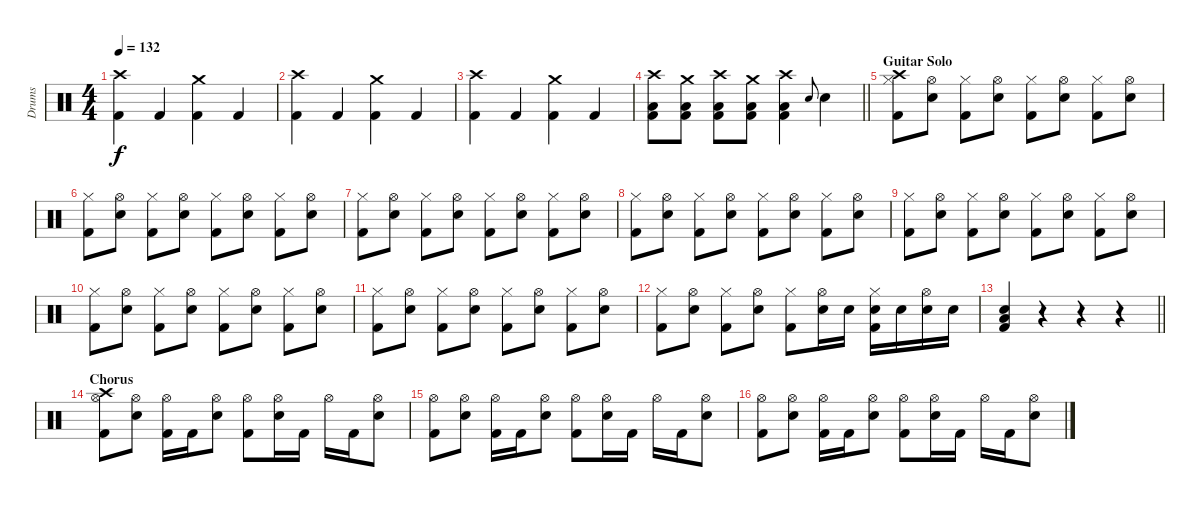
\track ("Drums" "Drums") {instrument percussion}
\staff {score}
\articulation defaults
\ts (4 4)
\tempo 132
\clef neutral
\ks c
("Crash high (hit)" "Kick (hit) 2").4{dy f} "Kick (hit) 2".4 ("Crash medium (hit)" "Kick (hit) 2").4 "Kick (hit) 2".4 |
("Crash high (hit)" "Kick (hit) 2").4 "Kick (hit) 2".4 ("Crash medium (hit)" "Kick (hit) 2").4 "Kick (hit) 2".4 |
("Crash high (hit)" "Kick (hit) 2").4 "Kick (hit) 2".4 ("Crash medium (hit)" "Kick (hit) 2").4 "Kick (hit) 2".4 |
\barLineRight lightlight
("Crash high (hit)" "Low Floor Tom (hit)" "Kick (hit) 2").8 ("Crash medium (hit)" "Low Floor Tom (hit)" "Kick (hit) 2").8 ("Crash high (hit)" "Low Floor Tom (hit)" "Kick (hit) 2").8 ("Crash medium (hit)" "Low Floor Tom (hit)" "Kick (hit) 2").8 ("Crash high (hit)" "Low Floor Tom (hit)" "Kick (hit) 2").4 "Snare (hit) 2".8{gr onbeat} "Snare (hit) 2".4 |
\section ("" "Guitar Solo")
("Crash high (hit)" "Hi-Hat (closed)" "Kick (hit) 2").8 ("Hi-Hat (open)" "Snare (hit) 2").8 ("Hi-Hat (closed)" "Kick (hit) 2").8 ("Hi-Hat (open)" "Snare (hit) 2").8 ("Hi-Hat (closed)" "Kick (hit) 2").8 ("Hi-Hat (open)" "Snare (hit) 2").8 ("Hi-Hat (closed)" "Kick (hit) 2").8 ("Hi-Hat (open)" "Snare (hit) 2").8 |
("Hi-Hat (closed)" "Kick (hit) 2").8 ("Hi-Hat (open)" "Snare (hit) 2").8 ("Hi-Hat (closed)" "Kick (hit) 2").8 ("Hi-Hat (open)" "Snare (hit) 2").8 ("Hi-Hat (closed)" "Kick (hit) 2").8 ("Hi-Hat (open)" "Snare (hit) 2").8 ("Hi-Hat (closed)" "Kick (hit) 2").8 ("Hi-Hat (open)" "Snare (hit) 2").8 |
("Hi-Hat (closed)" "Kick (hit) 2").8 ("Hi-Hat (open)" "Snare (hit) 2").8 ("Hi-Hat (closed)" "Kick (hit) 2").8 ("Hi-Hat (open)" "Snare (hit) 2").8 ("Hi-Hat (closed)" "Kick (hit) 2").8 ("Hi-Hat (open)" "Snare (hit) 2").8 ("Hi-Hat (closed)" "Kick (hit) 2").8 ("Hi-Hat (open)" "Snare (hit) 2").8 |
("Hi-Hat (closed)" "Kick (hit) 2").8 ("Hi-Hat (open)" "Snare (hit) 2").8 ("Hi-Hat (closed)" "Kick (hit) 2").8 ("Hi-Hat (open)" "Snare (hit) 2").8 ("Hi-Hat (closed)" "Kick (hit) 2").8 ("Hi-Hat (open)" "Snare (hit) 2").8 ("Hi-Hat (closed)" "Kick (hit) 2").8 ("Hi-Hat (open)" "Snare (hit) 2").8 |
("Hi-Hat (closed)" "Kick (hit) 2").8 ("Hi-Hat (open)" "Snare (hit) 2").8 ("Hi-Hat (closed)" "Kick (hit) 2").8 ("Hi-Hat (open)" "Snare (hit) 2").8 ("Hi-Hat (closed)" "Kick (hit) 2").8 ("Hi-Hat (open)" "Snare (hit) 2").8 ("Hi-Hat (closed)" "Kick (hit) 2").8 ("Hi-Hat (open)" "Snare (hit) 2").8 |
("Hi-Hat (closed)" "Kick (hit) 2").8 ("Hi-Hat (open)" "Snare (hit) 2").8 ("Hi-Hat (closed)" "Kick (hit) 2").8 ("Hi-Hat (open)" "Snare (hit) 2").8 ("Hi-Hat (closed)" "Kick (hit) 2").8 ("Hi-Hat (open)" "Snare (hit) 2").8 ("Hi-Hat (closed)" "Kick (hit) 2").8 ("Hi-Hat (open)" "Snare (hit) 2").8 |
("Hi-Hat (closed)" "Kick (hit) 2").8 ("Hi-Hat (open)" "Snare (hit) 2").8 ("Hi-Hat (closed)" "Kick (hit) 2").8 ("Hi-Hat (open)" "Snare (hit) 2").8 ("Hi-Hat (closed)" "Kick (hit) 2").8 ("Hi-Hat (open)" "Snare (hit) 2").8 ("Hi-Hat (closed)" "Kick (hit) 2").8 ("Hi-Hat (open)" "Snare (hit) 2").8 |
("Hi-Hat (closed)" "Kick (hit) 2").8 ("Hi-Hat (open)" "Snare (hit) 2").8 ("Hi-Hat (closed)" "Kick (hit) 2").8 ("Hi-Hat (open)" "Snare (hit) 2").8 ("Hi-Hat (closed)" "Kick (hit) 2").8 ("Hi-Hat (open)" "Snare (hit) 2").16 "Snare (hit) 2".16 ("Hi-Hat (closed)" "Snare (hit) 2" "Kick (hit) 2").16 "Snare (hit) 2".16 ("Hi-Hat (open)" "Snare (hit) 2").16 "Snare (hit) 2".16 |
\barLineRight lightlight
("Snare (hit) 2" "Low Floor Tom (hit)" "Kick (hit) 2").4 r.4 r.4 r.4 |
\section ("" "Chorus")
("Crash high (hit)" "Hi-Hat (open)" "Kick (hit) 2").8 ("Hi-Hat (open)" "Snare (hit) 2").8 ("Hi-Hat (open)" "Kick (hit) 2").16 "Kick (hit) 2".16 ("Hi-Hat (open)" "Snare (hit) 2").8 ("Hi-Hat (open)" "Kick (hit) 2").8 ("Hi-Hat (open)" "Snare (hit) 2").16 "Kick (hit) 2".16 "Hi-Hat (open)".16 "Kick (hit) 2".16 ("Hi-Hat (open)" "Snare (hit) 2").8 |
("Hi-Hat (open)" "Kick (hit) 2").8 ("Hi-Hat (open)" "Snare (hit) 2").8 ("Hi-Hat (open)" "Kick (hit) 2").16 "Kick (hit) 2".16 ("Hi-Hat (open)" "Snare (hit) 2").8 ("Hi-Hat (open)" "Kick (hit) 2").8 ("Hi-Hat (open)" "Snare (hit) 2").16 "Kick (hit) 2".16 "Hi-Hat (open)".16 "Kick (hit) 2".16 ("Hi-Hat (open)" "Snare (hit) 2").8 |
("Hi-Hat (open)" "Kick (hit) 2").8 ("Hi-Hat (open)" "Snare (hit) 2").8 ("Hi-Hat (open)" "Kick (hit) 2").16 "Kick (hit) 2".16 ("Hi-Hat (open)" "Snare (hit) 2").8 ("Hi-Hat (open)" "Kick (hit) 2").8 ("Hi-Hat (open)" "Snare (hit) 2").16 "Kick (hit) 2".16 "Hi-Hat (open)".16 "Kick (hit) 2".16 ("Hi-Hat (open)" "Snare (hit) 2").8
